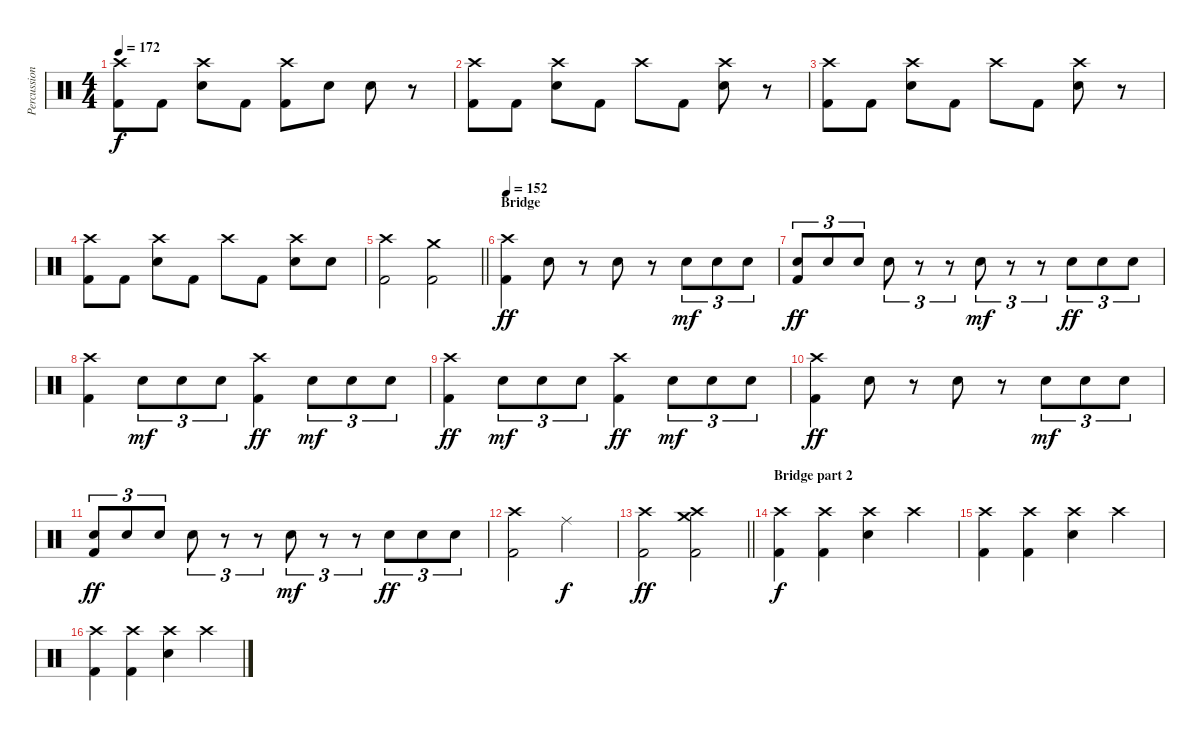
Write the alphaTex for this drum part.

\track ("Percussion" "Percussion") {instrument percussion}
\staff {score}
\articulation defaults
\ts (4 4)
\tempo 172
\clef neutral
\ks c
("Crash high (hit)" "Kick (hit) 2").8{dy f} "Kick (hit) 2".8 ("Crash high (hit)" "Snare (hit) 2").8 "Kick (hit) 2".8 ("Crash high (hit)" "Kick (hit) 2").8 "Snare (hit) 2".8 "Snare (hit) 2".8 r.8 |
("Crash high (hit)" "Kick (hit) 2").8 "Kick (hit) 2".8 ("Crash high (hit)" "Snare (hit) 2").8 "Kick (hit) 2".8 "Crash high (hit)".8 "Kick (hit) 2".8 ("Crash high (hit)" "Snare (hit) 2").8 r.8 |
("Crash high (hit)" "Kick (hit) 2").8 "Kick (hit) 2".8 ("Crash high (hit)" "Snare (hit) 2").8 "Kick (hit) 2".8 "Crash high (hit)".8 "Kick (hit) 2".8 ("Crash high (hit)" "Snare (hit) 2").8 r.8 |
("Crash high (hit)" "Kick (hit) 2").8 "Kick (hit) 2".8 ("Crash high (hit)" "Snare (hit) 2").8 "Kick (hit) 2".8 "Crash high (hit)".8 "Kick (hit) 2".8 ("Crash high (hit)" "Snare (hit) 2").8 "Snare (hit) 2".8 |
\barLineRight lightlight
("Crash high (hit)" "Kick (hit) 2").2 ("Crash medium (hit)" "Kick (hit) 2").2 |
\section ("" "Bridge")
\tempo 152
("Crash high (hit)" "Kick (hit) 2").4{dy ff} "Snare (hit) 2".8 r.8 "Snare (hit) 2".8 r.8 "Snare (hit) 2".8{tu (3 2) dy mf} "Snare (hit) 2".8{tu (3 2)} "Snare (hit) 2".8{tu (3 2)} |
("Snare (hit) 2" "Kick (hit) 2").8{tu (3 2) dy ff} "Snare (hit) 2".8{tu (3 2)} "Snare (hit) 2".8{tu (3 2)} "Snare (hit) 2".8{tu (3 2)} r.8{tu (3 2)} r.8{tu (3 2)} "Snare (hit) 2".8{tu (3 2) dy mf} r.8{tu (3 2)} r.8{tu (3 2)} "Snare (hit) 2".8{tu (3 2) dy ff} "Snare (hit) 2".8{tu (3 2)} "Snare (hit) 2".8{tu (3 2)} |
("Crash high (hit)" "Kick (hit) 2").4 "Snare (hit) 2".8{tu (3 2) dy mf} "Snare (hit) 2".8{tu (3 2)} "Snare (hit) 2".8{tu (3 2)} ("Crash high (hit)" "Kick (hit) 2").4{dy ff} "Snare (hit) 2".8{tu (3 2) dy mf} "Snare (hit) 2".8{tu (3 2)} "Snare (hit) 2".8{tu (3 2)} |
("Crash high (hit)" "Kick (hit) 2").4{dy ff} "Snare (hit) 2".8{tu (3 2) dy mf} "Snare (hit) 2".8{tu (3 2)} "Snare (hit) 2".8{tu (3 2)} ("Crash high (hit)" "Kick (hit) 2").4{dy ff} "Snare (hit) 2".8{tu (3 2) dy mf} "Snare (hit) 2".8{tu (3 2)} "Snare (hit) 2".8{tu (3 2)} |
("Crash high (hit)" "Kick (hit) 2").4{dy ff} "Snare (hit) 2".8 r.8 "Snare (hit) 2".8 r.8 "Snare (hit) 2".8{tu (3 2) dy mf} "Snare (hit) 2".8{tu (3 2)} "Snare (hit) 2".8{tu (3 2)} |
("Snare (hit) 2" "Kick (hit) 2").8{tu (3 2) dy ff} "Snare (hit) 2".8{tu (3 2)} "Snare (hit) 2".8{tu (3 2)} "Snare (hit) 2".8{tu (3 2)} r.8{tu (3 2)} r.8{tu (3 2)} "Snare (hit) 2".8{tu (3 2) dy mf} r.8{tu (3 2)} r.8{tu (3 2)} "Snare (hit) 2".8{tu (3 2) dy ff} "Snare (hit) 2".8{tu (3 2)} "Snare (hit) 2".8{tu (3 2)} |
("Crash high (hit)" "Kick (hit) 2").2 "Ride (middle)".2{dy f} |
\barLineRight lightlight
("Crash high (hit)" "Kick (hit) 2").2{dy ff} ("Crash high (hit)" "Crash medium (hit)" "Kick (hit) 2").2 |
\section ("" "Bridge part 2")
("Crash high (hit)" "Kick (hit) 2").4{dy f} ("Crash high (hit)" "Kick (hit) 2").4 ("Crash high (hit)" "Snare (hit) 2").4 "Crash high (hit)".4 |
("Crash high (hit)" "Kick (hit) 2").4 ("Crash high (hit)" "Kick (hit) 2").4 ("Crash high (hit)" "Snare (hit) 2").4 "Crash high (hit)".4 |
("Crash high (hit)" "Kick (hit) 2").4 ("Crash high (hit)" "Kick (hit) 2").4 ("Crash high (hit)" "Snare (hit) 2").4 "Crash high (hit)".4
